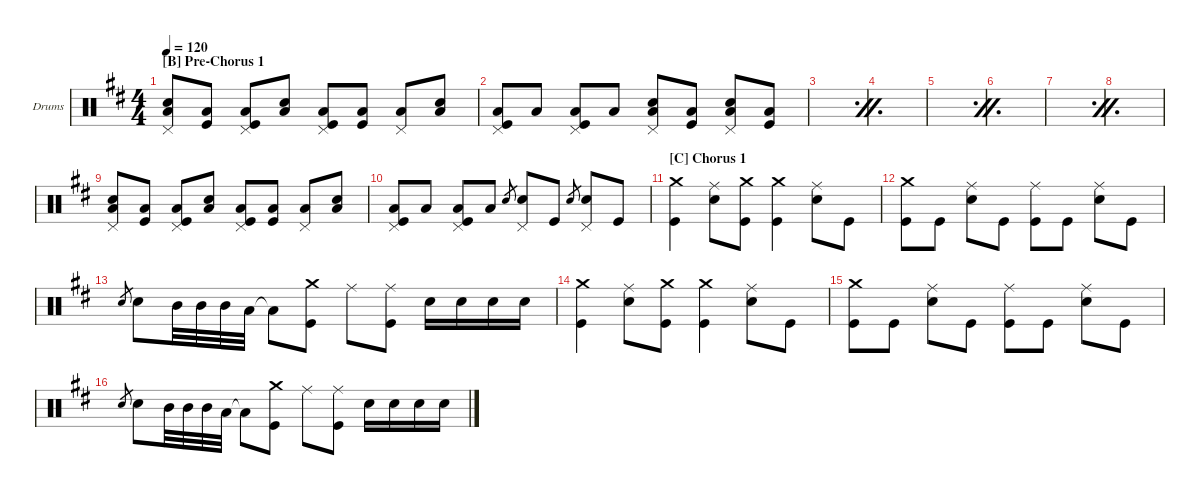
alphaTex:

\hideDynamics
\bracketExtendMode nobrackets
\firstSystemTrackNameOrientation horizontal
\otherSystemsTrackNameOrientation horizontal
\track ("Drums" "Drums") {instrument percussion}
\staff {score}
\articulation defaults
\ts (4 4)
\section ("B" "Pre-Chorus 1")
\tempo 120
\clef neutral
\ks bminor
("Low Tom (hit)" "Snare (hit) 2" "Pedal Hi-Hat (hit)").8{dy mf} ("Kick (hit)" "Low Tom (hit)").8 ("Kick (hit)" "Low Tom (hit)" "Pedal Hi-Hat (hit)").8 ("Low Tom (hit)" "Snare (hit) 2").8 ("Kick (hit)" "Low Tom (hit)" "Pedal Hi-Hat (hit)").8 ("Kick (hit)" "Low Tom (hit)").8 ("Low Tom (hit)" "Pedal Hi-Hat (hit)").8 ("Low Tom (hit)" "Snare (hit) 2").8 |
("Low Tom (hit)" "Kick (hit)" "Pedal Hi-Hat (hit)").8 "Low Tom (hit)".8 ("Kick (hit)" "Low Tom (hit)" "Pedal Hi-Hat (hit)").8 "Low Tom (hit)".8 ("Low Tom (hit)" "Snare (hit) 2" "Pedal Hi-Hat (hit)").8 ("Low Tom (hit)" "Kick (hit)").8 ("Low Tom (hit)" "Snare (hit) 2" "Pedal Hi-Hat (hit)").8 ("Low Tom (hit)" "Kick (hit)").8 |
\simile firstofdouble
|
\simile secondofdouble
|
\simile firstofdouble
|
\simile secondofdouble
|
\simile firstofdouble
|
\simile secondofdouble
|
\simile none
("Low Tom (hit)" "Snare (hit) 2" "Pedal Hi-Hat (hit)").8 ("Kick (hit)" "Low Tom (hit)").8 ("Kick (hit)" "Low Tom (hit)" "Pedal Hi-Hat (hit)").8 ("Low Tom (hit)" "Snare (hit) 2").8 ("Kick (hit)" "Low Tom (hit)" "Pedal Hi-Hat (hit)").8 ("Kick (hit)" "Low Tom (hit)").8 ("Low Tom (hit)" "Pedal Hi-Hat (hit)").8 ("Low Tom (hit)" "Snare (hit) 2").8 |
("Low Tom (hit)" "Kick (hit)" "Pedal Hi-Hat (hit)").8 "Low Tom (hit)".8 ("Low Tom (hit)" "Kick (hit)" "Pedal Hi-Hat (hit)").8 "Low Tom (hit)".8 "Snare (hit) 2".8{gr dy f} ("Snare (hit) 2" "Pedal Hi-Hat (hit)").8 "Kick (hit)".8 "Snare (hit) 2".8{gr} ("Snare (hit) 2" "Pedal Hi-Hat (hit)").8 "Kick (hit)".8 |
\section ("C" "Chorus 1")
("Crash medium (hit)" "Kick (hit)").4 ("Ride (middle)" "Snare (hit) 2").8 ("Crash medium (hit)" "Kick (hit)").8 ("Crash medium (hit)" "Kick (hit)").4 ("Ride (middle)" "Snare (hit) 2").8 "Kick (hit)".8 |
("Crash medium (hit)" "Kick (hit)").8 "Kick (hit)".8 ("Ride (middle)" "Snare (hit) 2").8 "Kick (hit)".8 ("Ride (middle)" "Kick (hit)").8 "Kick (hit)".8 ("Ride (middle)" "Snare (hit) 2").8 "Kick (hit)".8 |
"Snare (hit) 2".8{gr} "Snare (hit) 2".8 "Mid Tom (hit)".32 "Mid Tom (hit)".32 "Mid Tom (hit)".32 "Low Tom (hit)".32 "Low Tom (hit)"{t}.8 ("Kick (hit)" "Crash medium (hit)").8 "Ride (middle)".8 ("Ride (middle)" "Kick (hit)").8 "Snare (hit) 2".16 "Snare (hit) 2".16 "Snare (hit) 2".16 "Snare (hit) 2".16 |
("Crash medium (hit)" "Kick (hit)").4 ("Ride (middle)" "Snare (hit) 2").8 ("Crash medium (hit)" "Kick (hit)").8 ("Crash medium (hit)" "Kick (hit)").4 ("Ride (middle)" "Snare (hit) 2").8 "Kick (hit)".8 |
("Crash medium (hit)" "Kick (hit)").8 "Kick (hit)".8 ("Ride (middle)" "Snare (hit) 2").8 "Kick (hit)".8 ("Ride (middle)" "Kick (hit)").8 "Kick (hit)".8 ("Ride (middle)" "Snare (hit) 2").8 "Kick (hit)".8 |
"Snare (hit) 2".8{gr} "Snare (hit) 2".8 "Mid Tom (hit)".32 "Mid Tom (hit)".32 "Mid Tom (hit)".32 "Low Tom (hit)".32 "Low Tom (hit)"{t}.8 ("Kick (hit)" "Crash medium (hit)").8 "Ride (middle)".8 ("Ride (middle)" "Kick (hit)").8 "Snare (hit) 2".16 "Snare (hit) 2".16 "Snare (hit) 2".16 "Snare (hit) 2".16
